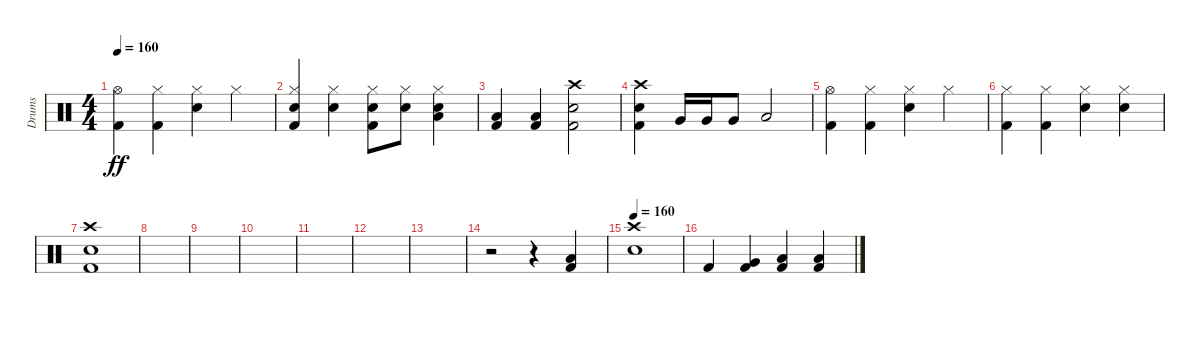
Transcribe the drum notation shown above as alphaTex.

\track ("Drums" "Drums") {instrument percussion}
\staff {score}
\articulation defaults
\ts (4 4)
\tempo 160
\clef neutral
\ks c
("Hi-Hat (open)" "Kick (hit) 2").4{dy ff} ("Hi-Hat (closed)" "Kick (hit) 2").4 ("Hi-Hat (closed)" "Snare (hit) 2").4 "Hi-Hat (closed)".4 |
("Hi-Hat (closed)" "Snare (hit) 2" "Kick (hit) 2").4 ("Hi-Hat (closed)" "Snare (hit) 2").4 ("Hi-Hat (closed)" "Snare (hit) 2" "Kick (hit) 2").8 ("Hi-Hat (closed)" "Snare (hit) 2").8 ("Hi-Hat (closed)" "Snare (hit) 2" "Low Floor Tom (hit)").4 |
("Low Floor Tom (hit)" "Kick (hit) 2").4 ("Low Floor Tom (hit)" "Kick (hit) 2").4 ("Kick (hit) 2" "Crash high (hit)" "Snare (hit) 2").2 |
("Kick (hit) 2" "Crash high (hit)" "Snare (hit) 2").4 "Very Low Tom (hit)".16 "Very Low Tom (hit)".16 "Very Low Tom (hit)".8 "Low Floor Tom (hit)".2 |
("Hi-Hat (open)" "Kick (hit) 2").4 ("Hi-Hat (closed)" "Kick (hit) 2").4 ("Hi-Hat (closed)" "Snare (hit) 2").4 "Hi-Hat (closed)".4 |
("Hi-Hat (closed)" "Kick (hit) 2").4 ("Hi-Hat (closed)" "Kick (hit) 2").4 ("Hi-Hat (closed)" "Snare (hit) 2").4 ("Hi-Hat (closed)" "Snare (hit) 2").4 |
("Snare (hit) 2" "Kick (hit) 2" "Crash high (hit)").1 |
|
|
|
|
|
|
r.2 r.4 ("Kick (hit) 2" "Low Floor Tom (hit)").4 |
\tempo 160
("Snare (hit) 2" "Crash high (hit)").1 |
"Kick (hit) 2".4 ("Very Low Tom (hit)" "Kick (hit) 2").4 ("Low Floor Tom (hit)" "Kick (hit) 2").4 ("Low Floor Tom (hit)" "Kick (hit) 2").4
